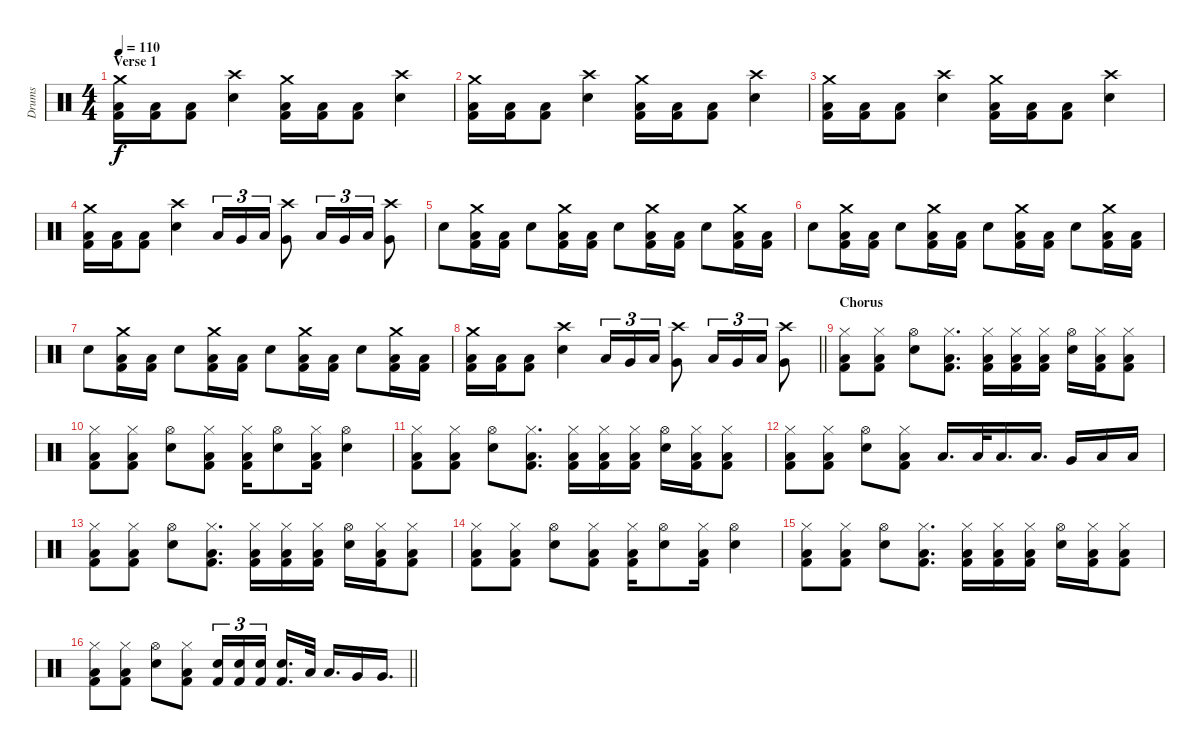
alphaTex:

\track ("Drums" "Drums") {instrument percussion}
\staff {score}
\articulation defaults
\ts (4 4)
\section ("" "Verse 1")
\tempo 110
\clef neutral
\ks c
("Crash medium (hit)" "Low Floor Tom (hit)" "Kick (hit) 2").16{dy f} ("Low Floor Tom (hit)" "Kick (hit) 2").16 ("Low Floor Tom (hit)" "Kick (hit) 2").8 ("Crash high (hit)" "Snare (hit) 2").4 ("Crash medium (hit)" "Low Floor Tom (hit)" "Kick (hit) 2").16 ("Low Floor Tom (hit)" "Kick (hit) 2").16 ("Low Floor Tom (hit)" "Kick (hit) 2").8 ("Crash high (hit)" "Snare (hit) 2").4 |
("Crash medium (hit)" "Low Floor Tom (hit)" "Kick (hit) 2").16 ("Low Floor Tom (hit)" "Kick (hit) 2").16 ("Low Floor Tom (hit)" "Kick (hit) 2").8 ("Crash high (hit)" "Snare (hit) 2").4 ("Crash medium (hit)" "Low Floor Tom (hit)" "Kick (hit) 2").16 ("Low Floor Tom (hit)" "Kick (hit) 2").16 ("Low Floor Tom (hit)" "Kick (hit) 2").8 ("Crash high (hit)" "Snare (hit) 2").4 |
("Crash medium (hit)" "Low Floor Tom (hit)" "Kick (hit) 2").16 ("Low Floor Tom (hit)" "Kick (hit) 2").16 ("Low Floor Tom (hit)" "Kick (hit) 2").8 ("Crash high (hit)" "Snare (hit) 2").4 ("Crash medium (hit)" "Low Floor Tom (hit)" "Kick (hit) 2").16 ("Low Floor Tom (hit)" "Kick (hit) 2").16 ("Low Floor Tom (hit)" "Kick (hit) 2").8 ("Crash high (hit)" "Snare (hit) 2").4 |
("Crash medium (hit)" "Low Floor Tom (hit)" "Kick (hit) 2").16 ("Low Floor Tom (hit)" "Kick (hit) 2").16 ("Low Floor Tom (hit)" "Kick (hit) 2").8 ("Crash high (hit)" "Snare (hit) 2").4 "Low Tom (hit)".16{tu (3 2)} "Very Low Tom (hit)".16{tu (3 2)} "Low Tom (hit)".16{tu (3 2)} ("Crash high (hit)" "Very Low Tom (hit)").8 "Low Tom (hit)".16{tu (3 2)} "Very Low Tom (hit)".16{tu (3 2)} "Low Tom (hit)".16{tu (3 2)} ("Crash high (hit)" "Very Low Tom (hit)").8 |
"Snare (hit) 2".8 ("Crash medium (hit)" "Low Floor Tom (hit)" "Kick (hit) 2").16 ("Low Floor Tom (hit)" "Kick (hit) 2").16 "Snare (hit) 2".8 ("Crash medium (hit)" "Low Floor Tom (hit)" "Kick (hit) 2").16 ("Low Floor Tom (hit)" "Kick (hit) 2").16 "Snare (hit) 2".8 ("Crash medium (hit)" "Low Floor Tom (hit)" "Kick (hit) 2").16 ("Low Floor Tom (hit)" "Kick (hit) 2").16 "Snare (hit) 2".8 ("Crash medium (hit)" "Low Floor Tom (hit)" "Kick (hit) 2").16 ("Low Floor Tom (hit)" "Kick (hit) 2").16 |
"Snare (hit) 2".8 ("Crash medium (hit)" "Low Floor Tom (hit)" "Kick (hit) 2").16 ("Low Floor Tom (hit)" "Kick (hit) 2").16 "Snare (hit) 2".8 ("Crash medium (hit)" "Low Floor Tom (hit)" "Kick (hit) 2").16 ("Low Floor Tom (hit)" "Kick (hit) 2").16 "Snare (hit) 2".8 ("Crash medium (hit)" "Low Floor Tom (hit)" "Kick (hit) 2").16 ("Low Floor Tom (hit)" "Kick (hit) 2").16 "Snare (hit) 2".8 ("Crash medium (hit)" "Low Floor Tom (hit)" "Kick (hit) 2").16 ("Low Floor Tom (hit)" "Kick (hit) 2").16 |
"Snare (hit) 2".8 ("Crash medium (hit)" "Low Floor Tom (hit)" "Kick (hit) 2").16 ("Low Floor Tom (hit)" "Kick (hit) 2").16 "Snare (hit) 2".8 ("Crash medium (hit)" "Low Floor Tom (hit)" "Kick (hit) 2").16 ("Low Floor Tom (hit)" "Kick (hit) 2").16 "Snare (hit) 2".8 ("Crash medium (hit)" "Low Floor Tom (hit)" "Kick (hit) 2").16 ("Low Floor Tom (hit)" "Kick (hit) 2").16 "Snare (hit) 2".8 ("Crash medium (hit)" "Low Floor Tom (hit)" "Kick (hit) 2").16 ("Low Floor Tom (hit)" "Kick (hit) 2").16 |
\barLineRight lightlight
("Crash medium (hit)" "Low Floor Tom (hit)" "Kick (hit) 2").16 ("Low Floor Tom (hit)" "Kick (hit) 2").16 ("Low Floor Tom (hit)" "Kick (hit) 2").8 ("Crash high (hit)" "Snare (hit) 2").4 "Low Tom (hit)".16{tu (3 2)} "Very Low Tom (hit)".16{tu (3 2)} "Low Tom (hit)".16{tu (3 2)} ("Crash high (hit)" "Very Low Tom (hit)").8 "Low Tom (hit)".16{tu (3 2)} "Very Low Tom (hit)".16{tu (3 2)} "Low Tom (hit)".16{tu (3 2)} ("Crash high (hit)" "Very Low Tom (hit)").8 |
\section ("" "Chorus")
("Hi-Hat (closed)" "Low Floor Tom (hit)" "Kick (hit) 2").8 ("Hi-Hat (closed)" "Low Floor Tom (hit)" "Kick (hit) 2").8 ("Hi-Hat (open)" "Snare (hit) 2").8 ("Hi-Hat (closed)" "Low Floor Tom (hit)" "Kick (hit) 2").8{d} ("Hi-Hat (closed)" "Low Floor Tom (hit)" "Kick (hit) 2").16 ("Hi-Hat (closed)" "Low Floor Tom (hit)" "Kick (hit) 2").16 ("Hi-Hat (closed)" "Low Floor Tom (hit)" "Kick (hit) 2").16 ("Hi-Hat (open)" "Snare (hit) 2").16 ("Hi-Hat (closed)" "Low Floor Tom (hit)" "Kick (hit) 2").16 ("Hi-Hat (closed)" "Low Floor Tom (hit)" "Kick (hit) 2").8 |
("Hi-Hat (closed)" "Low Floor Tom (hit)" "Kick (hit) 2").8 ("Hi-Hat (closed)" "Low Floor Tom (hit)" "Kick (hit) 2").8 ("Hi-Hat (open)" "Snare (hit) 2").8 ("Hi-Hat (closed)" "Low Floor Tom (hit)" "Kick (hit) 2").8 ("Hi-Hat (closed)" "Low Floor Tom (hit)" "Kick (hit) 2").16 ("Hi-Hat (open)" "Snare (hit) 2").8 ("Hi-Hat (closed)" "Low Floor Tom (hit)" "Kick (hit) 2").16 ("Hi-Hat (open)" "Snare (hit) 2").4 |
("Hi-Hat (closed)" "Low Floor Tom (hit)" "Kick (hit) 2").8 ("Hi-Hat (closed)" "Low Floor Tom (hit)" "Kick (hit) 2").8 ("Hi-Hat (open)" "Snare (hit) 2").8 ("Hi-Hat (closed)" "Low Floor Tom (hit)" "Kick (hit) 2").8{d} ("Hi-Hat (closed)" "Low Floor Tom (hit)" "Kick (hit) 2").16 ("Hi-Hat (closed)" "Low Floor Tom (hit)" "Kick (hit) 2").16 ("Hi-Hat (closed)" "Low Floor Tom (hit)" "Kick (hit) 2").16 ("Hi-Hat (open)" "Snare (hit) 2").16 ("Hi-Hat (closed)" "Low Floor Tom (hit)" "Kick (hit) 2").16 ("Hi-Hat (closed)" "Low Floor Tom (hit)" "Kick (hit) 2").8 |
("Hi-Hat (closed)" "Low Floor Tom (hit)" "Kick (hit) 2").8 ("Hi-Hat (closed)" "Low Floor Tom (hit)" "Kick (hit) 2").8 ("Hi-Hat (open)" "Snare (hit) 2").8 ("Hi-Hat (closed)" "Low Floor Tom (hit)" "Kick (hit) 2").8 "Low Tom (hit)".16{d} "Low Tom (hit)".32 "Low Tom (hit)".16{d} "Low Tom (hit)".16{d} "Very Low Tom (hit)".16 "Low Floor Tom (hit)".16 "Low Floor Tom (hit)".16 |
("Hi-Hat (closed)" "Low Floor Tom (hit)" "Kick (hit) 2").8 ("Hi-Hat (closed)" "Low Floor Tom (hit)" "Kick (hit) 2").8 ("Hi-Hat (open)" "Snare (hit) 2").8 ("Hi-Hat (closed)" "Low Floor Tom (hit)" "Kick (hit) 2").8{d} ("Hi-Hat (closed)" "Low Floor Tom (hit)" "Kick (hit) 2").16 ("Hi-Hat (closed)" "Low Floor Tom (hit)" "Kick (hit) 2").16 ("Hi-Hat (closed)" "Low Floor Tom (hit)" "Kick (hit) 2").16 ("Hi-Hat (open)" "Snare (hit) 2").16 ("Hi-Hat (closed)" "Low Floor Tom (hit)" "Kick (hit) 2").16 ("Hi-Hat (closed)" "Low Floor Tom (hit)" "Kick (hit) 2").8 |
("Hi-Hat (closed)" "Low Floor Tom (hit)" "Kick (hit) 2").8 ("Hi-Hat (closed)" "Low Floor Tom (hit)" "Kick (hit) 2").8 ("Hi-Hat (open)" "Snare (hit) 2").8 ("Hi-Hat (closed)" "Low Floor Tom (hit)" "Kick (hit) 2").8 ("Hi-Hat (closed)" "Low Floor Tom (hit)" "Kick (hit) 2").16 ("Hi-Hat (open)" "Snare (hit) 2").8 ("Hi-Hat (closed)" "Low Floor Tom (hit)" "Kick (hit) 2").16 ("Hi-Hat (open)" "Snare (hit) 2").4 |
("Hi-Hat (closed)" "Low Floor Tom (hit)" "Kick (hit) 2").8 ("Hi-Hat (closed)" "Low Floor Tom (hit)" "Kick (hit) 2").8 ("Hi-Hat (open)" "Snare (hit) 2").8 ("Hi-Hat (closed)" "Low Floor Tom (hit)" "Kick (hit) 2").8{d} ("Hi-Hat (closed)" "Low Floor Tom (hit)" "Kick (hit) 2").16 ("Hi-Hat (closed)" "Low Floor Tom (hit)" "Kick (hit) 2").16 ("Hi-Hat (closed)" "Low Floor Tom (hit)" "Kick (hit) 2").16 ("Hi-Hat (open)" "Snare (hit) 2").16 ("Hi-Hat (closed)" "Low Floor Tom (hit)" "Kick (hit) 2").16 ("Hi-Hat (closed)" "Low Floor Tom (hit)" "Kick (hit) 2").8 |
\barLineRight lightlight
("Hi-Hat (closed)" "Low Floor Tom (hit)" "Kick (hit) 2").8 ("Hi-Hat (closed)" "Low Floor Tom (hit)" "Kick (hit) 2").8 ("Hi-Hat (open)" "Snare (hit) 2").8 ("Hi-Hat (closed)" "Low Floor Tom (hit)" "Kick (hit) 2").8 ("Electric Snare (hit)" "Kick (hit) 2").16{tu (3 2)} ("Electric Snare (hit)" "Kick (hit) 2").16{tu (3 2)} ("Electric Snare (hit)" "Kick (hit) 2").16{tu (3 2) beam splitsecondary} ("Electric Snare (hit)" "Kick (hit) 2").16{d} "Low Tom (hit)".32 "Low Tom (hit)".16{d} "Very Low Tom (hit)".16 "Very Low Tom (hit)".16{d}
